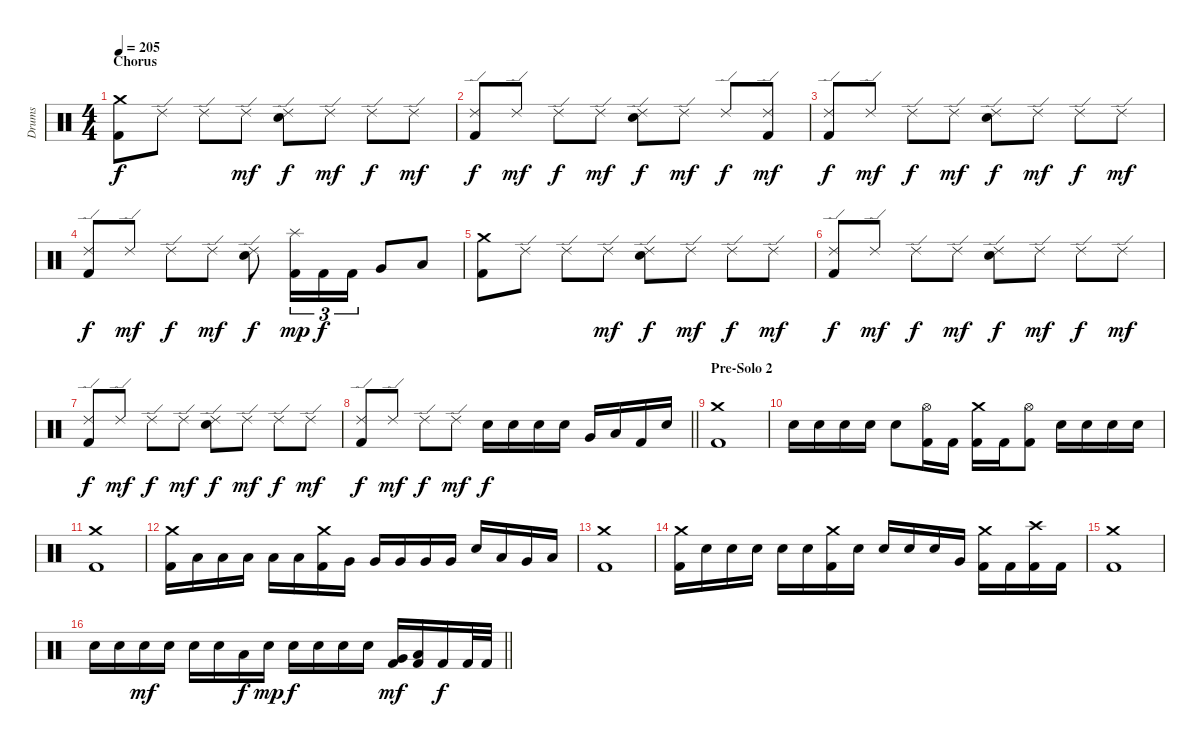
\track ("Drums" "Drums") {instrument percussion}
\staff {score}
\articulation defaults
\ts (4 4)
\section ("" "Chorus")
\tempo 205
\clef neutral
\ks c
("Crash medium (hit)" "Kick (hit) 2").8{dy f} "Ride (edge) 2".8 "Ride (edge) 2".8 "Ride (edge) 2".8{dy mf} ("Ride (edge) 2" "Electric Snare (hit)").8{dy f} "Ride (edge) 2".8{dy mf} "Ride (edge) 2".8{dy f} "Ride (edge) 2".8{dy mf} |
("Ride (edge) 2" "Kick (hit) 2").8{dy f} "Ride (edge) 2".8{dy mf} "Ride (edge) 2".8{dy f} "Ride (edge) 2".8{dy mf} ("Ride (edge) 2" "Electric Snare (hit)").8{dy f} "Ride (edge) 2".8{dy mf} "Ride (edge) 2".8{dy f} ("Ride (edge) 2" "Kick (hit) 2").8{dy mf} |
("Ride (edge) 2" "Kick (hit) 2").8{dy f} "Ride (edge) 2".8{dy mf} "Ride (edge) 2".8{dy f} "Ride (edge) 2".8{dy mf} ("Ride (edge) 2" "Electric Snare (hit)").8{dy f} "Ride (edge) 2".8{dy mf} "Ride (edge) 2".8{dy f} "Ride (edge) 2".8{dy mf} |
("Ride (edge) 2" "Kick (hit) 2").8{dy f} "Ride (edge) 2".8{dy mf} "Ride (edge) 2".8{dy f} "Ride (edge) 2".8{dy mf} ("Ride (edge) 2" "Electric Snare (hit)").8{dy f} ("Splash (hit)" "Kick (hit) 2").16{tu (3 2) dy mp} "Kick (hit) 2".16{tu (3 2) dy f} "Kick (hit) 2".16{tu (3 2)} "Very Low Tom (hit)".8 "Low Floor Tom (hit)".8 |
("Crash medium (hit)" "Kick (hit) 2").8 "Ride (edge) 2".8 "Ride (edge) 2".8 "Ride (edge) 2".8{dy mf} ("Ride (edge) 2" "Electric Snare (hit)").8{dy f} "Ride (edge) 2".8{dy mf} "Ride (edge) 2".8{dy f} "Ride (edge) 2".8{dy mf} |
("Ride (edge) 2" "Kick (hit) 2").8{dy f} "Ride (edge) 2".8{dy mf} "Ride (edge) 2".8{dy f} "Ride (edge) 2".8{dy mf} ("Ride (edge) 2" "Electric Snare (hit)").8{dy f} "Ride (edge) 2".8{dy mf} "Ride (edge) 2".8{dy f} "Ride (edge) 2".8{dy mf} |
("Ride (edge) 2" "Kick (hit) 2").8{dy f} "Ride (edge) 2".8{dy mf} "Ride (edge) 2".8{dy f} "Ride (edge) 2".8{dy mf} ("Ride (edge) 2" "Electric Snare (hit)").8{dy f} "Ride (edge) 2".8{dy mf} "Ride (edge) 2".8{dy f} "Ride (edge) 2".8{dy mf} |
\barLineRight lightlight
("Ride (edge) 2" "Kick (hit) 2").8{dy f} "Ride (edge) 2".8{dy mf} "Ride (edge) 2".8{dy f} "Ride (edge) 2".8{dy mf} "Electric Snare (hit)".16{dy f} "Electric Snare (hit)".16 "Electric Snare (hit)".16 "Electric Snare (hit)".16 "Very Low Tom (hit)".16 "Low Floor Tom (hit)".16 "Kick (hit) 2".16 "Electric Snare (hit)".16 |
\section ("" "Pre-Solo 2")
("Crash medium (hit)" "Kick (hit) 2").1 |
"Electric Snare (hit)".16 "Electric Snare (hit)".16 "Electric Snare (hit)".16 "Electric Snare (hit)".16 "Electric Snare (hit)".8 ("Hi-Hat (open)" "Kick (hit) 2").16 "Kick (hit) 2".16 ("Crash medium (hit)" "Kick (hit) 2").16 "Kick (hit) 2".16 ("Hi-Hat (open)" "Kick (hit) 2").8 "Electric Snare (hit)".16 "Electric Snare (hit)".16 "Electric Snare (hit)".16 "Electric Snare (hit)".16 |
("Crash medium (hit)" "Kick (hit) 2").1 |
("Crash medium (hit)" "Kick (hit) 2").16 "Low Tom (hit)".16 "Low Tom (hit)".16 "Low Tom (hit)".16 "Low Tom (hit)".16 "Low Tom (hit)".16 ("Crash medium (hit)" "Kick (hit) 2").16 "Very Low Tom (hit)".16 "Very Low Tom (hit)".16 "Very Low Tom (hit)".16 "Very Low Tom (hit)".16 "Very Low Tom (hit)".16 "Electric Snare (hit)".16 "Low Tom (hit)".16 "Very Low Tom (hit)".16 "Low Floor Tom (hit)".16 |
("Crash medium (hit)" "Kick (hit) 2").1 |
("Crash medium (hit)" "Kick (hit) 2").16 "Electric Snare (hit)".16 "Electric Snare (hit)".16 "Electric Snare (hit)".16 "Electric Snare (hit)".16 "Electric Snare (hit)".16 ("Crash medium (hit)" "Kick (hit) 2").16 "Electric Snare (hit)".16 "Electric Snare (hit)".16 "Electric Snare (hit)".16 "Electric Snare (hit)".16 "Very Low Tom (hit)".16 ("Crash medium (hit)" "Kick (hit) 2").16 "Kick (hit) 2".16 ("Crash high (hit)" "Kick (hit) 2").16 "Kick (hit) 2".16 |
("Crash medium (hit)" "Kick (hit) 2").1 |
\barLineRight lightlight "Electric Snare (hit)".16 "Electric Snare (hit)".16 "Electric Snare (hit)".16{dy mf} "Electric Snare (hit)".16 "Electric Snare (hit)".16 "Electric Snare (hit)".16 "Low Tom (hit)".16{dy f} "Electric Snare (hit)".16{dy mp} "Electric Snare (hit)".16{dy f} "Electric Snare (hit)".16 "Electric Snare (hit)".16 "Electric Snare (hit)".16
("Very Low Tom (hit)" "Kick (hit) 2").16{dy mf} ("Low Floor Tom (hit)" "Kick (hit) 2").16 "Kick (hit) 2".16{dy f} "Kick (hit) 2".32 "Kick (hit) 2".32
